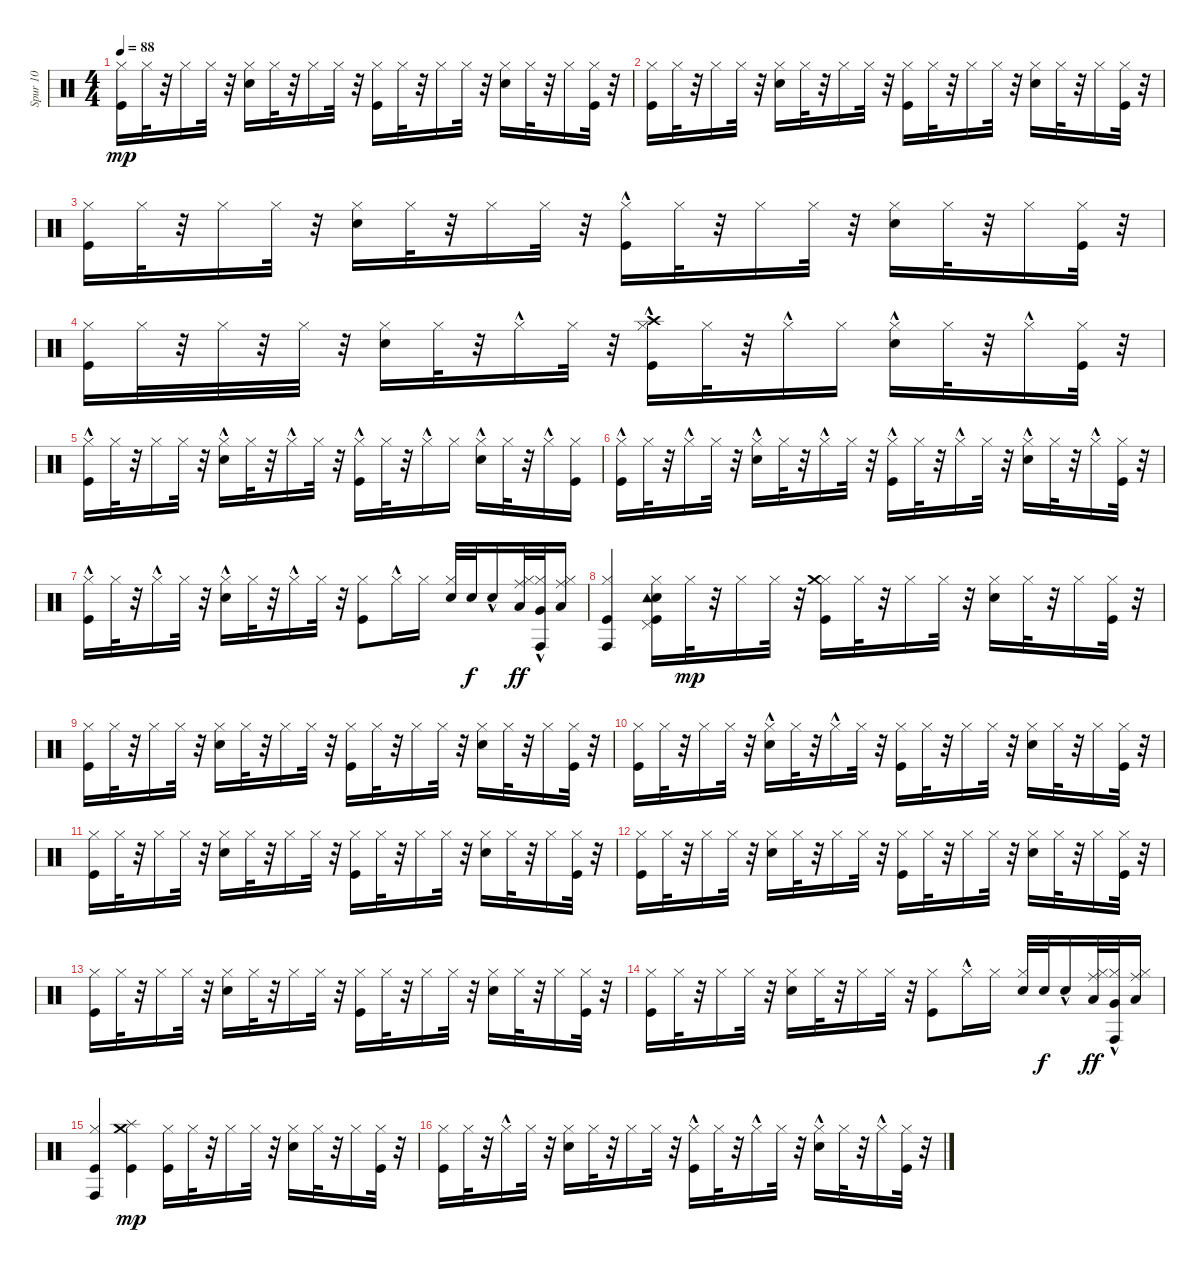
\track ("Spur 10" "Spur 10") {instrument percussion}
\staff {score}
\articulation defaults
\ts (4 4)
\tempo 88
\clef neutral
\ks c
("Kick (hit)" "Hi-Hat (closed)").16{dy mp} "Hi-Hat (closed)".32 r.32 "Hi-Hat (closed)".16 "Hi-Hat (closed)".32 r.32 ("Snare (hit) 2" "Hi-Hat (closed)").16 "Hi-Hat (closed)".32 r.32 "Hi-Hat (closed)".16 "Hi-Hat (closed)".32 r.32 ("Kick (hit)" "Hi-Hat (closed)").16 "Hi-Hat (closed)".32 r.32 "Hi-Hat (closed)".16 "Hi-Hat (closed)".32 r.32 ("Snare (hit) 2" "Hi-Hat (closed)").16 "Hi-Hat (closed)".32 r.32 "Hi-Hat (closed)".16 ("Kick (hit)" "Hi-Hat (closed)").32 r.32 |
("Kick (hit)" "Hi-Hat (closed)").16 "Hi-Hat (closed)".32 r.32 "Hi-Hat (closed)".16 "Hi-Hat (closed)".32 r.32 ("Snare (hit) 2" "Hi-Hat (closed)").16 "Hi-Hat (closed)".32 r.32 "Hi-Hat (closed)".16 "Hi-Hat (closed)".32 r.32 ("Kick (hit)" "Hi-Hat (closed)").16 "Hi-Hat (closed)".32 r.32 "Hi-Hat (closed)".16 "Hi-Hat (closed)".32 r.32 ("Snare (hit) 2" "Hi-Hat (closed)").16 "Hi-Hat (closed)".32 r.32 "Hi-Hat (closed)".16 ("Kick (hit)" "Hi-Hat (closed)").32 r.32 |
("Kick (hit)" "Hi-Hat (closed)").16 "Hi-Hat (closed)".32 r.32 "Hi-Hat (closed)".16 "Hi-Hat (closed)".32 r.32 ("Snare (hit) 2" "Hi-Hat (closed)").16 "Hi-Hat (closed)".32 r.32 "Hi-Hat (closed)".16 "Hi-Hat (closed)".32 r.32 ("Kick (hit)" "Hi-Hat (closed)"{hac}).16 "Hi-Hat (closed)".32 r.32 "Hi-Hat (closed)".16 "Hi-Hat (closed)".32 r.32 ("Snare (hit) 2" "Hi-Hat (closed)").16 "Hi-Hat (closed)".32 r.32 "Hi-Hat (closed)".16 ("Kick (hit)" "Hi-Hat (closed)").32 r.32 |
("Kick (hit)" "Hi-Hat (closed)").16 "Hi-Hat (closed)".32 r.32 "Hi-Hat (closed)".32 r.32 "Hi-Hat (closed)".32 r.32 ("Snare (hit) 2" "Hi-Hat (closed)").16 "Hi-Hat (closed)".32 r.32 "Hi-Hat (closed)"{hac}.16 "Hi-Hat (closed)".32 r.32 ("Kick (hit)"{hac} "Hi-Hat (closed)"{hac} "Crash high (hit)").16 "Hi-Hat (closed)".32 r.32 "Hi-Hat (closed)"{hac}.16 "Hi-Hat (closed)".16 ("Snare (hit) 2" "Hi-Hat (closed)"{hac}).16 "Hi-Hat (closed)".32 r.32 "Hi-Hat (closed)"{hac}.16 ("Kick (hit)" "Hi-Hat (closed)").32 r.32 |
("Kick (hit)" "Hi-Hat (closed)"{hac}).16 "Hi-Hat (closed)".32 r.32 "Hi-Hat (closed)".16 "Hi-Hat (closed)".32 r.32 ("Snare (hit) 2" "Hi-Hat (closed)"{hac}).16 "Hi-Hat (closed)".32 r.32 "Hi-Hat (closed)"{hac}.16 "Hi-Hat (closed)".32 r.32 ("Kick (hit)"{hac} "Hi-Hat (closed)"{hac}).16 "Hi-Hat (closed)".32 r.32 "Hi-Hat (closed)"{hac}.16 "Hi-Hat (closed)".16 ("Snare (hit) 2" "Hi-Hat (closed)"{hac}).16 "Hi-Hat (closed)".32 r.32 "Hi-Hat (closed)"{hac}.16 ("Kick (hit)" "Hi-Hat (closed)").16 |
("Kick (hit)" "Hi-Hat (closed)"{hac}).16 "Hi-Hat (closed)".32 r.32 "Hi-Hat (closed)"{hac}.16 "Hi-Hat (closed)".32 r.32 ("Snare (hit) 2" "Hi-Hat (closed)"{hac}).16 "Hi-Hat (closed)".32 r.32 "Hi-Hat (closed)"{hac}.16 "Hi-Hat (closed)".32 r.32 ("Kick (hit)"{hac} "Hi-Hat (closed)"{hac}).16 "Hi-Hat (closed)".32 r.32 "Hi-Hat (closed)"{hac}.16 "Hi-Hat (closed)".32 r.32 ("Snare (hit) 2" "Hi-Hat (closed)"{hac}).16 "Hi-Hat (closed)".32 r.32 "Hi-Hat (closed)"{hac}.16 ("Kick (hit)" "Hi-Hat (closed)").32 r.32 |
("Kick (hit)" "Hi-Hat (closed)"{hac}).16 "Hi-Hat (closed)".32 r.32 "Hi-Hat (closed)"{hac}.16 "Hi-Hat (closed)".32 r.32 ("Snare (hit) 2" "Hi-Hat (closed)"{hac}).16 "Hi-Hat (closed)".32 r.32 "Hi-Hat (closed)"{hac}.16 "Hi-Hat (closed)".32 r.32 ("Kick (hit)" "Hi-Hat (closed)").8 "Hi-Hat (closed)"{hac}.16 "Hi-Hat (closed)".16 ("Snare (hit) 2" "Hi-Hat (closed)").32 "Snare (hit) 2".32{dy f} "Snare (hit) 2"{hac}.16 ("Hi-Hat (closed)" "Low Tom (hit)" "Ride (middle)").32{dy ff} ("Hi-Hat (closed)" "Very Low Tom (hit)" "Conga high (hit)"{hac}).32 ("Low Floor Tom (hit)" "Hi-Hat (closed)" "Ride (middle)").16 |
("Kick (hit)" "Hi-Hat (closed)" "Conga high (hit)").4 ("Kick (hit)" "Snare (hit) 2" "Hi-Hat (closed)" "Pedal Hi-Hat (hit)" "Tambourine (hit)").16 "Hi-Hat (closed)".32{dy mp} r.32 "Hi-Hat (closed)".16 "Hi-Hat (closed)".32 r.32 ("Kick (hit)" "Hi-Hat (closed)" "Crash medium (hit)").16 "Hi-Hat (closed)".32 r.32 "Hi-Hat (closed)".16 "Hi-Hat (closed)".32 r.32 ("Snare (hit) 2" "Hi-Hat (closed)").16 "Hi-Hat (closed)".32 r.32 "Hi-Hat (closed)".16 ("Kick (hit)" "Hi-Hat (closed)").32 r.32 |
("Kick (hit)" "Hi-Hat (closed)").16 "Hi-Hat (closed)".32 r.32 "Hi-Hat (closed)".16 "Hi-Hat (closed)".32 r.32 ("Snare (hit) 2" "Hi-Hat (closed)").16 "Hi-Hat (closed)".32 r.32 "Hi-Hat (closed)".16 "Hi-Hat (closed)".32 r.32 ("Kick (hit)" "Hi-Hat (closed)").16 "Hi-Hat (closed)".32 r.32 "Hi-Hat (closed)".16 "Hi-Hat (closed)".32 r.32 ("Snare (hit) 2" "Hi-Hat (closed)").16 "Hi-Hat (closed)".32 r.32 "Hi-Hat (closed)".16 ("Kick (hit)" "Hi-Hat (closed)").32 r.32 |
("Kick (hit)" "Hi-Hat (closed)").16 "Hi-Hat (closed)".32 r.32 "Hi-Hat (closed)".16 "Hi-Hat (closed)".32 r.32 ("Snare (hit) 2" "Hi-Hat (closed)"{hac}).16 "Hi-Hat (closed)".32 r.32 "Hi-Hat (closed)"{hac}.16 "Hi-Hat (closed)".32 r.32 ("Kick (hit)" "Hi-Hat (closed)").16 "Hi-Hat (closed)".32 r.32 "Hi-Hat (closed)".16 "Hi-Hat (closed)".32 r.32 ("Snare (hit) 2" "Hi-Hat (closed)").16 "Hi-Hat (closed)".32 r.32 "Hi-Hat (closed)".16 ("Kick (hit)" "Hi-Hat (closed)").32 r.32 |
("Kick (hit)" "Hi-Hat (closed)").16 "Hi-Hat (closed)".32 r.32 "Hi-Hat (closed)".16 "Hi-Hat (closed)".32 r.32 ("Snare (hit) 2" "Hi-Hat (closed)").16 "Hi-Hat (closed)".32 r.32 "Hi-Hat (closed)".16 "Hi-Hat (closed)".32 r.32 ("Kick (hit)" "Hi-Hat (closed)").16 "Hi-Hat (closed)".32 r.32 "Hi-Hat (closed)".16 "Hi-Hat (closed)".32 r.32 ("Snare (hit) 2" "Hi-Hat (closed)").16 "Hi-Hat (closed)".32 r.32 "Hi-Hat (closed)".16 ("Kick (hit)" "Hi-Hat (closed)").32 r.32 |
("Kick (hit)" "Hi-Hat (closed)").16 "Hi-Hat (closed)".32 r.32 "Hi-Hat (closed)".16 "Hi-Hat (closed)".32 r.32 ("Snare (hit) 2" "Hi-Hat (closed)").16 "Hi-Hat (closed)".32 r.32 "Hi-Hat (closed)".16 "Hi-Hat (closed)".32 r.32 ("Kick (hit)" "Hi-Hat (closed)").16 "Hi-Hat (closed)".32 r.32 "Hi-Hat (closed)".16 "Hi-Hat (closed)".32 r.32 ("Snare (hit) 2" "Hi-Hat (closed)").16 "Hi-Hat (closed)".32 r.32 "Hi-Hat (closed)".16 ("Kick (hit)" "Hi-Hat (closed)").32 r.32 |
("Kick (hit)" "Hi-Hat (closed)").16 "Hi-Hat (closed)".32 r.32 "Hi-Hat (closed)".16 "Hi-Hat (closed)".32 r.32 ("Snare (hit) 2" "Hi-Hat (closed)").16 "Hi-Hat (closed)".32 r.32 "Hi-Hat (closed)".16 "Hi-Hat (closed)".32 r.32 ("Kick (hit)" "Hi-Hat (closed)").16 "Hi-Hat (closed)".32 r.32 "Hi-Hat (closed)".16 "Hi-Hat (closed)".32 r.32 ("Snare (hit) 2" "Hi-Hat (closed)").16 "Hi-Hat (closed)".32 r.32 "Hi-Hat (closed)".16 ("Kick (hit)" "Hi-Hat (closed)").32 r.32 |
("Kick (hit)" "Hi-Hat (closed)").16 "Hi-Hat (closed)".32 r.32 "Hi-Hat (closed)".16 "Hi-Hat (closed)".32 r.32 ("Snare (hit) 2" "Hi-Hat (closed)").16 "Hi-Hat (closed)".32 r.32 "Hi-Hat (closed)".16 "Hi-Hat (closed)".32 r.32 ("Kick (hit)" "Hi-Hat (closed)").8 "Hi-Hat (closed)"{hac}.16 "Hi-Hat (closed)".16 ("Snare (hit) 2" "Hi-Hat (closed)").32 "Snare (hit) 2".32{dy f} "Snare (hit) 2"{hac}.16 ("Hi-Hat (closed)" "Low Tom (hit)" "Ride (middle)").32{dy ff} ("Hi-Hat (closed)" "Very Low Tom (hit)" "Conga high (hit)"{hac}).32 ("Low Floor Tom (hit)" "Hi-Hat (closed)" "Ride (middle)").16 |
("Kick (hit)" "Hi-Hat (closed)" "Conga high (hit)").4 ("Kick (hit)" "Splash (hit)" "Crash medium (hit)").4{dy mp} ("Kick (hit)" "Hi-Hat (closed)").16 "Hi-Hat (closed)".32 r.32 "Hi-Hat (closed)".16 "Hi-Hat (closed)".32 r.32 ("Snare (hit) 2" "Hi-Hat (closed)").16 "Hi-Hat (closed)".32 r.32 "Hi-Hat (closed)".16 ("Kick (hit)" "Hi-Hat (closed)").32 r.32 |
("Kick (hit)" "Hi-Hat (closed)").16 "Hi-Hat (closed)".32 r.32 "Hi-Hat (closed)"{hac}.16 "Hi-Hat (closed)".32 r.32 ("Snare (hit) 2" "Hi-Hat (closed)").16 "Hi-Hat (closed)".32 r.32 "Hi-Hat (closed)".16 "Hi-Hat (closed)".32 r.32 ("Kick (hit)"{hac} "Hi-Hat (closed)").16 "Hi-Hat (closed)".32 r.32 "Hi-Hat (closed)"{hac}.16 "Hi-Hat (closed)".32 r.32 ("Snare (hit) 2" "Hi-Hat (closed)"{hac}).16 "Hi-Hat (closed)".32 r.32 "Hi-Hat (closed)"{hac}.16 ("Kick (hit)" "Hi-Hat (closed)").32 r.32
